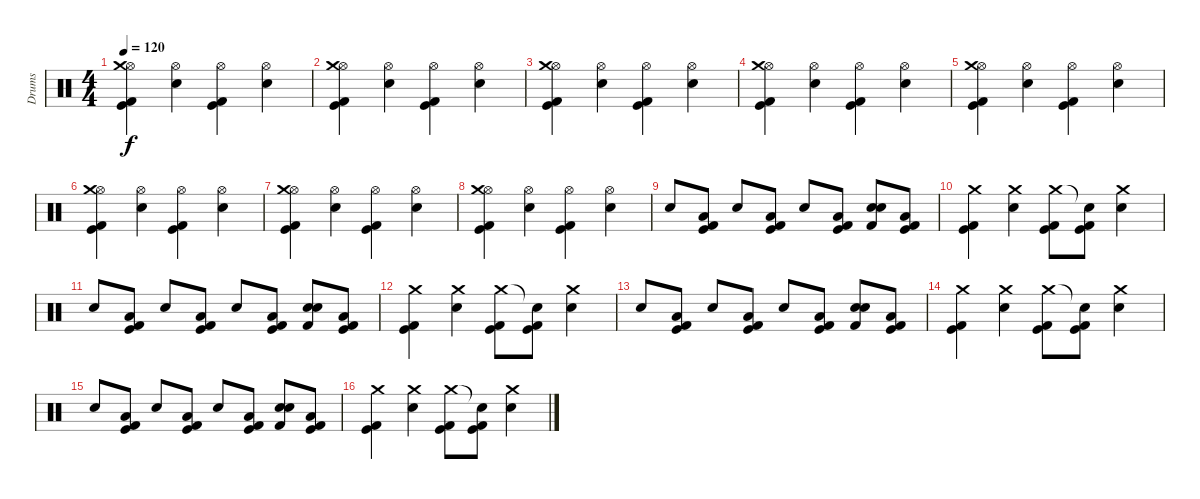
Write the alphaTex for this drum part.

\track ("Drums" "Drums") {instrument percussion}
\staff {score}
\articulation defaults
\ts (4 4)
\tempo 120
\clef neutral
\ks c
("Hi-Hat (open)" "Crash medium (hit)" "Kick (hit)" "Kick (hit) 2").4{dy f} ("Hi-Hat (open)" "Electric Snare (hit)").4 ("Hi-Hat (open)" "Kick (hit)" "Kick (hit) 2").4 ("Hi-Hat (open)" "Electric Snare (hit)").4 |
("Hi-Hat (open)" "Crash medium (hit)" "Kick (hit)" "Kick (hit) 2").4 ("Hi-Hat (open)" "Electric Snare (hit)").4 ("Hi-Hat (open)" "Kick (hit)" "Kick (hit) 2").4 ("Hi-Hat (open)" "Electric Snare (hit)").4 |
("Hi-Hat (open)" "Crash medium (hit)" "Kick (hit)" "Kick (hit) 2").4 ("Hi-Hat (open)" "Electric Snare (hit)").4 ("Hi-Hat (open)" "Kick (hit)" "Kick (hit) 2").4 ("Hi-Hat (open)" "Electric Snare (hit)").4 |
("Hi-Hat (open)" "Crash medium (hit)" "Kick (hit)" "Kick (hit) 2").4 ("Hi-Hat (open)" "Electric Snare (hit)").4 ("Hi-Hat (open)" "Kick (hit)" "Kick (hit) 2").4 ("Hi-Hat (open)" "Electric Snare (hit)").4 |
("Hi-Hat (open)" "Crash medium (hit)" "Kick (hit)" "Kick (hit) 2").4 ("Hi-Hat (open)" "Electric Snare (hit)").4 ("Hi-Hat (open)" "Kick (hit)" "Kick (hit) 2").4 ("Hi-Hat (open)" "Electric Snare (hit)").4 |
("Hi-Hat (open)" "Crash medium (hit)" "Kick (hit)" "Kick (hit) 2").4 ("Hi-Hat (open)" "Electric Snare (hit)").4 ("Hi-Hat (open)" "Kick (hit)" "Kick (hit) 2").4 ("Hi-Hat (open)" "Electric Snare (hit)").4 |
("Hi-Hat (open)" "Crash medium (hit)" "Kick (hit)" "Kick (hit) 2").4 ("Hi-Hat (open)" "Electric Snare (hit)").4 ("Hi-Hat (open)" "Kick (hit)" "Kick (hit) 2").4 ("Hi-Hat (open)" "Electric Snare (hit)").4 |
("Hi-Hat (open)" "Crash medium (hit)" "Kick (hit)" "Kick (hit) 2").4 ("Hi-Hat (open)" "Electric Snare (hit)").4 ("Hi-Hat (open)" "Kick (hit)" "Kick (hit) 2").4 ("Hi-Hat (open)" "Electric Snare (hit)").4 |
"Snare (hit) 2".8 ("Low Floor Tom (hit)" "Kick (hit)" "Kick (hit) 2").8 "Snare (hit) 2".8 ("Low Floor Tom (hit)" "Kick (hit)" "Kick (hit) 2").8 "Snare (hit) 2".8 ("Low Floor Tom (hit)" "Kick (hit)" "Kick (hit) 2").8 ("Electric Snare (hit)" "Snare (hit) 2" "Kick (hit) 2").8 ("Low Floor Tom (hit)" "Kick (hit)" "Kick (hit) 2").8 |
("Crash medium (hit)" "Kick (hit)" "Kick (hit) 2").4 ("Crash medium (hit)" "Snare (hit) 2").4 ("Crash medium (hit)" "Kick (hit)" "Kick (hit) 2").8 ("Snare (hit)"{t} "Kick (hit)" "Kick (hit) 2").8 ("Crash medium (hit)" "Snare (hit) 2").4 |
"Snare (hit) 2".8 ("Low Floor Tom (hit)" "Kick (hit)" "Kick (hit) 2").8 "Snare (hit) 2".8 ("Low Floor Tom (hit)" "Kick (hit)" "Kick (hit) 2").8 "Snare (hit) 2".8 ("Low Floor Tom (hit)" "Kick (hit)" "Kick (hit) 2").8 ("Electric Snare (hit)" "Snare (hit) 2" "Kick (hit) 2").8 ("Low Floor Tom (hit)" "Kick (hit)" "Kick (hit) 2").8 |
("Crash medium (hit)" "Kick (hit)" "Kick (hit) 2").4 ("Crash medium (hit)" "Snare (hit) 2").4 ("Crash medium (hit)" "Kick (hit)" "Kick (hit) 2").8 ("Snare (hit)"{t} "Kick (hit)" "Kick (hit) 2").8 ("Crash medium (hit)" "Snare (hit) 2").4 |
"Snare (hit) 2".8 ("Low Floor Tom (hit)" "Kick (hit)" "Kick (hit) 2").8 "Snare (hit) 2".8 ("Low Floor Tom (hit)" "Kick (hit)" "Kick (hit) 2").8 "Snare (hit) 2".8 ("Low Floor Tom (hit)" "Kick (hit)" "Kick (hit) 2").8 ("Electric Snare (hit)" "Snare (hit) 2" "Kick (hit) 2").8 ("Low Floor Tom (hit)" "Kick (hit)" "Kick (hit) 2").8 |
("Crash medium (hit)" "Kick (hit)" "Kick (hit) 2").4 ("Crash medium (hit)" "Snare (hit) 2").4 ("Crash medium (hit)" "Kick (hit)" "Kick (hit) 2").8 ("Snare (hit)"{t} "Kick (hit)" "Kick (hit) 2").8 ("Crash medium (hit)" "Snare (hit) 2").4 |
"Snare (hit) 2".8 ("Low Floor Tom (hit)" "Kick (hit)" "Kick (hit) 2").8 "Snare (hit) 2".8 ("Low Floor Tom (hit)" "Kick (hit)" "Kick (hit) 2").8 "Snare (hit) 2".8 ("Low Floor Tom (hit)" "Kick (hit)" "Kick (hit) 2").8 ("Electric Snare (hit)" "Snare (hit) 2" "Kick (hit) 2").8 ("Low Floor Tom (hit)" "Kick (hit)" "Kick (hit) 2").8 |
("Crash medium (hit)" "Kick (hit)" "Kick (hit) 2").4 ("Crash medium (hit)" "Snare (hit) 2").4 ("Crash medium (hit)" "Kick (hit)" "Kick (hit) 2").8 ("Snare (hit)"{t} "Kick (hit)" "Kick (hit) 2").8 ("Crash medium (hit)" "Snare (hit) 2").4
